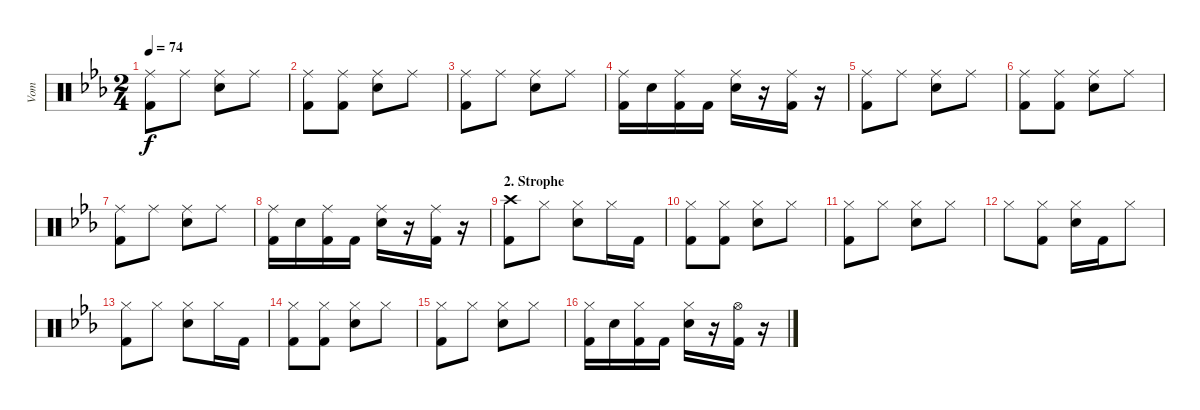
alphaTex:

\track ("Vom" "Vom") {instrument percussion}
\staff {score}
\articulation defaults
\ts (2 4)
\tempo 74
\clef neutral
\ks eb
("Ride (middle)" "Kick (hit) 2").8{dy f} "Ride (middle)".8 ("Ride (middle)" "Snare (hit) 2").8 "Ride (middle)".8 |
("Ride (middle)" "Kick (hit) 2").8 ("Ride (middle)" "Kick (hit) 2").8 ("Ride (middle)" "Snare (hit) 2").8 "Ride (middle)".8 |
("Ride (middle)" "Kick (hit) 2").8 "Ride (middle)".8 ("Ride (middle)" "Snare (hit) 2").8 "Ride (middle)".8 |
("Ride (middle)" "Kick (hit) 2").16 "Snare (hit) 2".16 ("Ride (middle)" "Kick (hit) 2").16 "Kick (hit) 2".16 ("Ride (middle)" "Snare (hit) 2").16 r.16 ("Ride (middle)" "Kick (hit) 2").16 r.16 |
("Ride (middle)" "Kick (hit) 2").8 "Ride (middle)".8 ("Ride (middle)" "Snare (hit) 2").8 "Ride (middle)".8 |
("Ride (middle)" "Kick (hit) 2").8 ("Ride (middle)" "Kick (hit) 2").8 ("Ride (middle)" "Snare (hit) 2").8 "Ride (middle)".8 |
("Ride (middle)" "Kick (hit) 2").8 "Ride (middle)".8 ("Ride (middle)" "Snare (hit) 2").8 "Ride (middle)".8 |
("Ride (middle)" "Kick (hit) 2").16 "Snare (hit) 2".16 ("Ride (middle)" "Kick (hit) 2").16 "Kick (hit) 2".16 ("Ride (middle)" "Snare (hit) 2").16 r.16 ("Ride (middle)" "Kick (hit) 2").16 r.16 |
\section ("" "2. Strophe")
("Crash high (hit)" "Kick (hit) 2").8 "Hi-Hat (closed)".8 ("Hi-Hat (closed)" "Snare (hit) 2").8 "Hi-Hat (closed)".16 "Kick (hit) 2".16 |
("Hi-Hat (closed)" "Kick (hit) 2").8 ("Hi-Hat (closed)" "Kick (hit) 2").8 ("Hi-Hat (closed)" "Snare (hit) 2").8 "Hi-Hat (closed)".8 |
("Hi-Hat (closed)" "Kick (hit) 2").8 "Hi-Hat (closed)".8 ("Hi-Hat (closed)" "Snare (hit) 2").8 "Hi-Hat (closed)".8 |
"Hi-Hat (closed)".8 ("Hi-Hat (closed)" "Kick (hit) 2").8 ("Hi-Hat (closed)" "Snare (hit) 2").16 "Kick (hit) 2".16 "Hi-Hat (closed)".8 |
("Hi-Hat (closed)" "Kick (hit) 2").8 "Hi-Hat (closed)".8 ("Hi-Hat (closed)" "Snare (hit) 2").8 "Hi-Hat (closed)".16 "Kick (hit) 2".16 |
("Hi-Hat (closed)" "Kick (hit) 2").8 ("Hi-Hat (closed)" "Kick (hit) 2").8 ("Hi-Hat (closed)" "Snare (hit) 2").8 "Hi-Hat (closed)".8 |
("Hi-Hat (closed)" "Kick (hit) 2").8 "Hi-Hat (closed)".8 ("Hi-Hat (closed)" "Snare (hit) 2").8 "Hi-Hat (closed)".8 |
("Hi-Hat (closed)" "Kick (hit) 2").16 "Snare (hit) 2".16 ("Hi-Hat (closed)" "Kick (hit) 2").16 "Kick (hit) 2".16 ("Hi-Hat (closed)" "Snare (hit) 2").16 r.16 ("Hi-Hat (open)" "Kick (hit) 2").16 r.16
